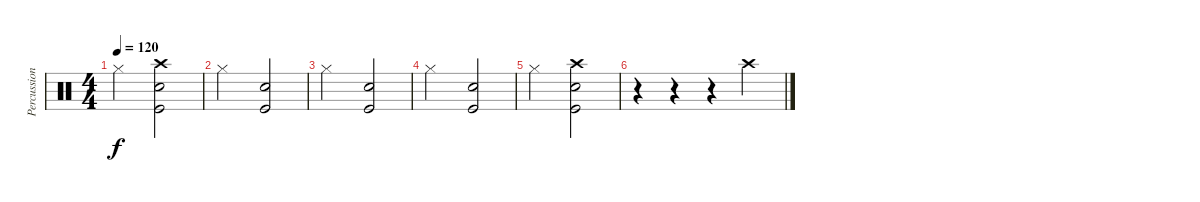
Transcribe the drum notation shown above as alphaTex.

\track ("Percussions" "Percussion") {instrument percussion}
\staff {score}
\articulation defaults
\ts (4 4)
\tempo 120
\clef neutral
\ks c "Hi-Hat (closed)".2{dy f}
("Kick (hit)" "Electric Snare (hit)" "Crash high (hit)").2 |
"Hi-Hat (closed)".2 ("Kick (hit)" "Electric Snare (hit)").2 |
"Hi-Hat (closed)".2 ("Kick (hit)" "Electric Snare (hit)").2 |
"Hi-Hat (closed)".2 ("Kick (hit)" "Electric Snare (hit)").2 |
"Hi-Hat (closed)".2 ("Kick (hit)" "Electric Snare (hit)" "Crash high (hit)").2 |
r.4 r.4 r.4 "Crash high (hit)".4
